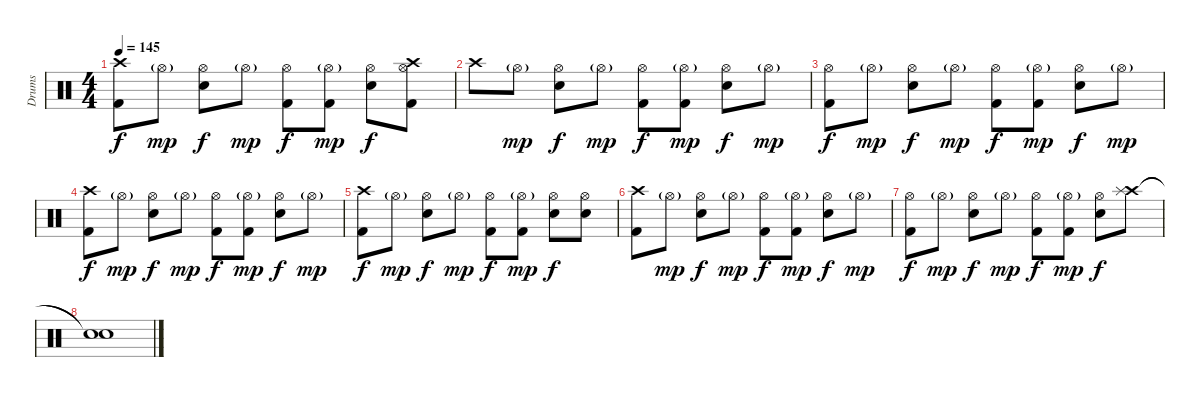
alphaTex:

\track ("Drums" "Drums") {instrument percussion}
\staff {score}
\articulation defaults
\ts (4 4)
\tempo 145
\clef neutral
\ks c
("Crash high (hit)" "Kick (hit) 2").8{dy f} "Hi-Hat (open)"{g}.8{dy mp} ("Hi-Hat (open)" "Electric Snare (hit)").8{dy f} "Hi-Hat (open)"{g}.8{dy mp} ("Hi-Hat (open)" "Kick (hit) 2").8{dy f} ("Hi-Hat (open)"{g} "Kick (hit) 2").8{dy mp} ("Hi-Hat (open)" "Electric Snare (hit)").8{dy f} ("Hi-Hat (open)" "Kick (hit) 2" "Crash high (hit)").8 |
"Crash high (hit)".8 "Hi-Hat (open)"{g}.8{dy mp} ("Hi-Hat (open)" "Electric Snare (hit)").8{dy f} "Hi-Hat (open)"{g}.8{dy mp} ("Hi-Hat (open)" "Kick (hit) 2").8{dy f} ("Hi-Hat (open)"{g} "Kick (hit) 2").8{dy mp} ("Hi-Hat (open)" "Electric Snare (hit)").8{dy f} "Hi-Hat (open)"{g}.8{dy mp} |
("Hi-Hat (open)" "Kick (hit) 2").8{dy f} "Hi-Hat (open)"{g}.8{dy mp} ("Hi-Hat (open)" "Electric Snare (hit)").8{dy f} "Hi-Hat (open)"{g}.8{dy mp} ("Hi-Hat (open)" "Kick (hit) 2").8{dy f} ("Hi-Hat (open)"{g} "Kick (hit) 2").8{dy mp} ("Hi-Hat (open)" "Electric Snare (hit)").8{dy f} "Hi-Hat (open)"{g}.8{dy mp} |
("Crash high (hit)" "Kick (hit) 2").8{dy f} "Hi-Hat (open)"{g}.8{dy mp} ("Hi-Hat (open)" "Electric Snare (hit)").8{dy f} "Hi-Hat (open)"{g}.8{dy mp} ("Hi-Hat (open)" "Kick (hit) 2").8{dy f} ("Hi-Hat (open)"{g} "Kick (hit) 2").8{dy mp} ("Hi-Hat (open)" "Electric Snare (hit)").8{dy f} "Hi-Hat (open)"{g}.8{dy mp} |
("Crash high (hit)" "Kick (hit) 2").8{dy f} "Hi-Hat (open)"{g}.8{dy mp} ("Hi-Hat (open)" "Electric Snare (hit)").8{dy f} "Hi-Hat (open)"{g}.8{dy mp} ("Hi-Hat (open)" "Kick (hit) 2").8{dy f} ("Hi-Hat (open)"{g} "Kick (hit) 2").8{dy mp} ("Hi-Hat (open)" "Electric Snare (hit)").8{dy f} ("Hi-Hat (open)" "Electric Snare (hit)").8 |
("Crash high (hit)" "Kick (hit) 2").8 "Hi-Hat (open)"{g}.8{dy mp} ("Hi-Hat (open)" "Electric Snare (hit)").8{dy f} "Hi-Hat (open)"{g}.8{dy mp} ("Hi-Hat (open)" "Kick (hit) 2").8{dy f} ("Hi-Hat (open)"{g} "Kick (hit) 2").8{dy mp} ("Hi-Hat (open)" "Electric Snare (hit)").8{dy f} "Hi-Hat (open)"{g}.8{dy mp} |
("Hi-Hat (open)" "Kick (hit) 2").8{dy f} "Hi-Hat (open)"{g}.8{dy mp} ("Hi-Hat (open)" "Electric Snare (hit)").8{dy f} "Hi-Hat (open)"{g}.8{dy mp} ("Hi-Hat (open)" "Kick (hit) 2").8{dy f} ("Hi-Hat (open)"{g} "Kick (hit) 2").8{dy mp} ("Hi-Hat (open)" "Electric Snare (hit)").8{dy f} ("Crash high (hit)" "Splash (hit)").8{volume 9} |
("Snare (hit)"{t} "Snare (hit)"{t}).1
